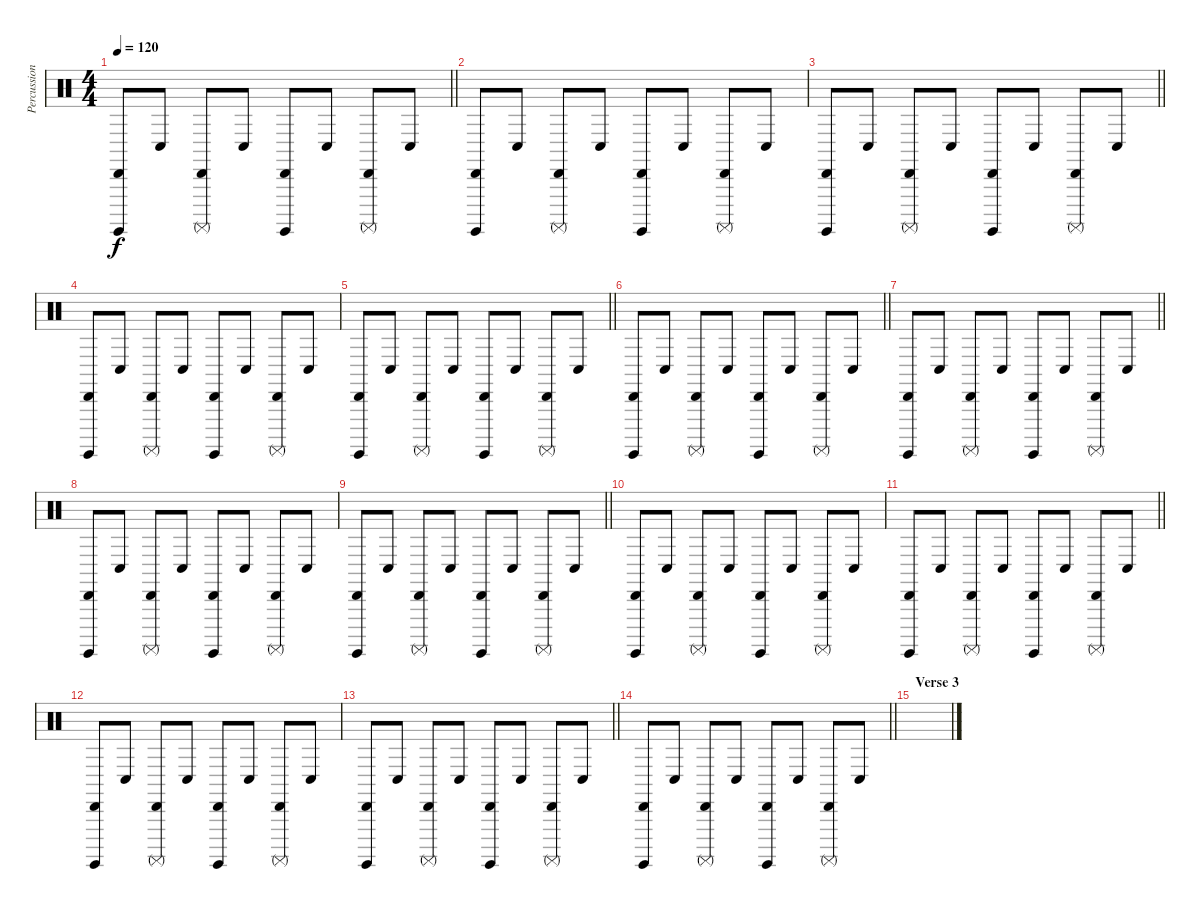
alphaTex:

\track ("Percussion" "Percussion") {instrument percussion}
\staff {score}
\articulation defaults
\ts (4 4)
\tempo 120
\clef neutral
\barLineRight lightlight
\ks c
("Surdo (hit)" "Cabasa (hit)").8{dy f} "Conga low (hit)".8 ("Surdo (mute)" "Cabasa (hit)").8 "Conga low (hit)".8 ("Surdo (hit)" "Cabasa (hit)").8 "Conga low (hit)".8 ("Surdo (mute)" "Cabasa (hit)").8 "Conga low (hit)".8 |
("Surdo (hit)" "Cabasa (hit)").8 "Conga low (hit)".8 ("Surdo (mute)" "Cabasa (hit)").8 "Conga low (hit)".8 ("Surdo (hit)" "Cabasa (hit)").8 "Conga low (hit)".8 ("Surdo (mute)" "Cabasa (hit)").8 "Conga low (hit)".8 |
\barLineRight lightlight
("Surdo (hit)" "Cabasa (hit)").8 "Conga low (hit)".8 ("Surdo (mute)" "Cabasa (hit)").8 "Conga low (hit)".8 ("Surdo (hit)" "Cabasa (hit)").8 "Conga low (hit)".8 ("Surdo (mute)" "Cabasa (hit)").8 "Conga low (hit)".8 |
("Surdo (hit)" "Cabasa (hit)").8 "Conga low (hit)".8 ("Surdo (mute)" "Cabasa (hit)").8 "Conga low (hit)".8 ("Surdo (hit)" "Cabasa (hit)").8 "Conga low (hit)".8 ("Surdo (mute)" "Cabasa (hit)").8 "Conga low (hit)".8 |
\barLineRight lightlight
("Surdo (hit)" "Cabasa (hit)").8 "Conga low (hit)".8 ("Surdo (mute)" "Cabasa (hit)").8 "Conga low (hit)".8 ("Surdo (hit)" "Cabasa (hit)").8 "Conga low (hit)".8 ("Surdo (mute)" "Cabasa (hit)").8 "Conga low (hit)".8 |
\barLineRight lightlight
("Surdo (hit)" "Cabasa (hit)").8 "Conga low (hit)".8 ("Surdo (mute)" "Cabasa (hit)").8 "Conga low (hit)".8 ("Surdo (hit)" "Cabasa (hit)").8 "Conga low (hit)".8 ("Surdo (mute)" "Cabasa (hit)").8 "Conga low (hit)".8 |
\barLineRight lightlight
("Surdo (hit)" "Cabasa (hit)").8 "Conga low (hit)".8 ("Surdo (mute)" "Cabasa (hit)").8 "Conga low (hit)".8 ("Surdo (hit)" "Cabasa (hit)").8 "Conga low (hit)".8 ("Surdo (mute)" "Cabasa (hit)").8 "Conga low (hit)".8 |
("Surdo (hit)" "Cabasa (hit)").8 "Conga low (hit)".8 ("Surdo (mute)" "Cabasa (hit)").8 "Conga low (hit)".8 ("Surdo (hit)" "Cabasa (hit)").8 "Conga low (hit)".8 ("Surdo (mute)" "Cabasa (hit)").8 "Conga low (hit)".8 |
\barLineRight lightlight
("Surdo (hit)" "Cabasa (hit)").8 "Conga low (hit)".8 ("Surdo (mute)" "Cabasa (hit)").8 "Conga low (hit)".8 ("Surdo (hit)" "Cabasa (hit)").8 "Conga low (hit)".8 ("Surdo (mute)" "Cabasa (hit)").8 "Conga low (hit)".8 |
("Surdo (hit)" "Cabasa (hit)").8 "Conga low (hit)".8 ("Surdo (mute)" "Cabasa (hit)").8 "Conga low (hit)".8 ("Surdo (hit)" "Cabasa (hit)").8 "Conga low (hit)".8 ("Surdo (mute)" "Cabasa (hit)").8 "Conga low (hit)".8 |
\barLineRight lightlight
("Surdo (hit)" "Cabasa (hit)").8 "Conga low (hit)".8 ("Surdo (mute)" "Cabasa (hit)").8 "Conga low (hit)".8 ("Surdo (hit)" "Cabasa (hit)").8 "Conga low (hit)".8 ("Surdo (mute)" "Cabasa (hit)").8 "Conga low (hit)".8 |
("Surdo (hit)" "Cabasa (hit)").8 "Conga low (hit)".8 ("Surdo (mute)" "Cabasa (hit)").8 "Conga low (hit)".8 ("Surdo (hit)" "Cabasa (hit)").8 "Conga low (hit)".8 ("Surdo (mute)" "Cabasa (hit)").8 "Conga low (hit)".8 |
\barLineRight lightlight
("Surdo (hit)" "Cabasa (hit)").8 "Conga low (hit)".8 ("Surdo (mute)" "Cabasa (hit)").8 "Conga low (hit)".8 ("Surdo (hit)" "Cabasa (hit)").8 "Conga low (hit)".8 ("Surdo (mute)" "Cabasa (hit)").8 "Conga low (hit)".8 |
\barLineRight lightlight
("Surdo (hit)" "Cabasa (hit)").8 "Conga low (hit)".8 ("Surdo (mute)" "Cabasa (hit)").8 "Conga low (hit)".8 ("Surdo (hit)" "Cabasa (hit)").8 "Conga low (hit)".8 ("Surdo (mute)" "Cabasa (hit)").8 "Conga low (hit)".8 |
\section ("" "Verse 3")
